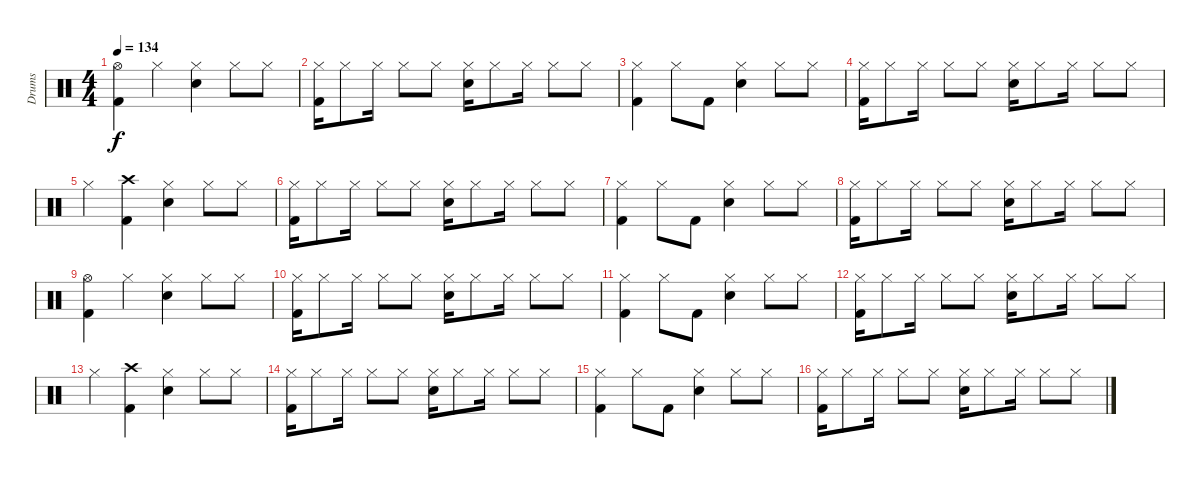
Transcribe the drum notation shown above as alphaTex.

\track ("Drums" "Drums") {instrument percussion}
\staff {score}
\articulation defaults
\ts (4 4)
\tempo 134
\clef neutral
\ks c
("Hi-Hat (open)" "Kick (hit) 2").4{dy f} "Hi-Hat (closed)".4 ("Hi-Hat (closed)" "Electric Snare (hit)").4 "Hi-Hat (closed)".8 "Hi-Hat (closed)".8 |
("Hi-Hat (closed)" "Kick (hit) 2").16 "Hi-Hat (closed)".8 "Hi-Hat (closed)".16 "Hi-Hat (closed)".8 "Hi-Hat (closed)".8 ("Hi-Hat (closed)" "Electric Snare (hit)").16 "Hi-Hat (closed)".8 "Hi-Hat (closed)".16 "Hi-Hat (closed)".8 "Hi-Hat (closed)".8 |
("Hi-Hat (closed)" "Kick (hit) 2").4 "Hi-Hat (closed)".8 "Kick (hit) 2".8 ("Hi-Hat (closed)" "Electric Snare (hit)").4 "Hi-Hat (closed)".8 "Hi-Hat (closed)".8 |
("Hi-Hat (closed)" "Kick (hit) 2").16 "Hi-Hat (closed)".8 "Hi-Hat (closed)".16 "Hi-Hat (closed)".8 "Hi-Hat (closed)".8 ("Hi-Hat (closed)" "Electric Snare (hit)").16 "Hi-Hat (closed)".8 "Hi-Hat (closed)".16 "Hi-Hat (closed)".8 "Hi-Hat (closed)".8 |
"Hi-Hat (closed)".4 ("Crash high (hit)" "Kick (hit) 2").4 ("Hi-Hat (closed)" "Electric Snare (hit)").4 "Hi-Hat (closed)".8 "Hi-Hat (closed)".8 |
("Hi-Hat (closed)" "Kick (hit) 2").16 "Hi-Hat (closed)".8 "Hi-Hat (closed)".16 "Hi-Hat (closed)".8 "Hi-Hat (closed)".8 ("Hi-Hat (closed)" "Electric Snare (hit)").16 "Hi-Hat (closed)".8 "Hi-Hat (closed)".16 "Hi-Hat (closed)".8 "Hi-Hat (closed)".8 |
("Hi-Hat (closed)" "Kick (hit) 2").4 "Hi-Hat (closed)".8 "Kick (hit) 2".8 ("Hi-Hat (closed)" "Electric Snare (hit)").4 "Hi-Hat (closed)".8 "Hi-Hat (closed)".8 |
("Hi-Hat (closed)" "Kick (hit) 2").16 "Hi-Hat (closed)".8 "Hi-Hat (closed)".16 "Hi-Hat (closed)".8 "Hi-Hat (closed)".8 ("Hi-Hat (closed)" "Electric Snare (hit)").16 "Hi-Hat (closed)".8 "Hi-Hat (closed)".16 "Hi-Hat (closed)".8 "Hi-Hat (closed)".8 |
("Hi-Hat (open)" "Kick (hit) 2").4 "Hi-Hat (closed)".4 ("Hi-Hat (closed)" "Electric Snare (hit)").4 "Hi-Hat (closed)".8 "Hi-Hat (closed)".8 |
("Hi-Hat (closed)" "Kick (hit) 2").16 "Hi-Hat (closed)".8 "Hi-Hat (closed)".16 "Hi-Hat (closed)".8 "Hi-Hat (closed)".8 ("Hi-Hat (closed)" "Electric Snare (hit)").16 "Hi-Hat (closed)".8 "Hi-Hat (closed)".16 "Hi-Hat (closed)".8 "Hi-Hat (closed)".8 |
("Hi-Hat (closed)" "Kick (hit) 2").4 "Hi-Hat (closed)".8 "Kick (hit) 2".8 ("Hi-Hat (closed)" "Electric Snare (hit)").4 "Hi-Hat (closed)".8 "Hi-Hat (closed)".8 |
("Hi-Hat (closed)" "Kick (hit) 2").16 "Hi-Hat (closed)".8 "Hi-Hat (closed)".16 "Hi-Hat (closed)".8 "Hi-Hat (closed)".8 ("Hi-Hat (closed)" "Electric Snare (hit)").16 "Hi-Hat (closed)".8 "Hi-Hat (closed)".16 "Hi-Hat (closed)".8 "Hi-Hat (closed)".8 |
"Hi-Hat (closed)".4 ("Crash high (hit)" "Kick (hit) 2").4 ("Hi-Hat (closed)" "Electric Snare (hit)").4 "Hi-Hat (closed)".8 "Hi-Hat (closed)".8 |
("Hi-Hat (closed)" "Kick (hit) 2").16 "Hi-Hat (closed)".8 "Hi-Hat (closed)".16 "Hi-Hat (closed)".8 "Hi-Hat (closed)".8 ("Hi-Hat (closed)" "Electric Snare (hit)").16 "Hi-Hat (closed)".8 "Hi-Hat (closed)".16 "Hi-Hat (closed)".8 "Hi-Hat (closed)".8 |
("Hi-Hat (closed)" "Kick (hit) 2").4 "Hi-Hat (closed)".8 "Kick (hit) 2".8 ("Hi-Hat (closed)" "Electric Snare (hit)").4 "Hi-Hat (closed)".8 "Hi-Hat (closed)".8 |
("Hi-Hat (closed)" "Kick (hit) 2").16 "Hi-Hat (closed)".8 "Hi-Hat (closed)".16 "Hi-Hat (closed)".8 "Hi-Hat (closed)".8 ("Hi-Hat (closed)" "Electric Snare (hit)").16 "Hi-Hat (closed)".8 "Hi-Hat (closed)".16 "Hi-Hat (closed)".8 "Hi-Hat (closed)".8
